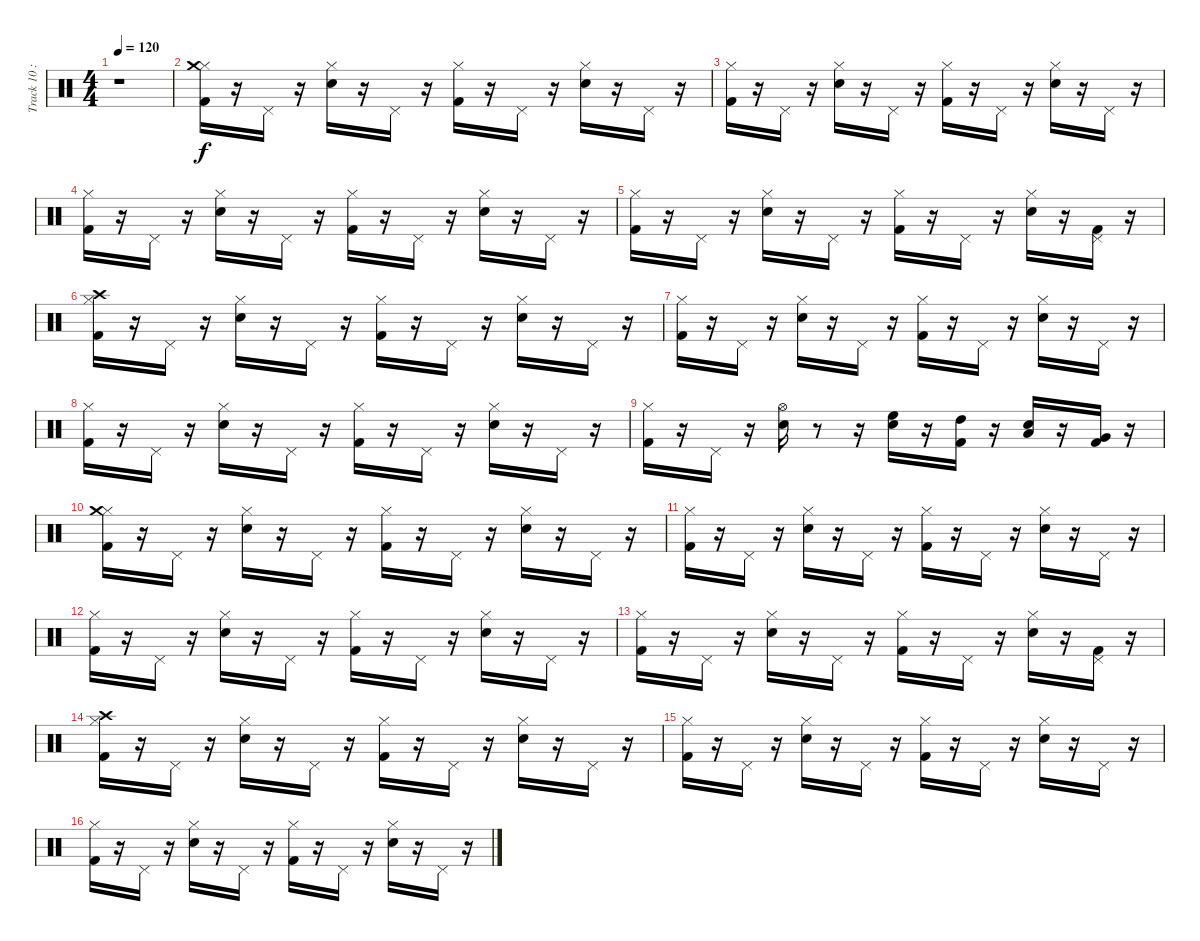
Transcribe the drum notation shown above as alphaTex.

\track ("Track 10 : unspecified" "Track 10 :") {instrument percussion}
\staff {score}
\articulation defaults
\ts (4 4)
\tempo 120
\clef neutral
\ks c
r.1{dy f} |
("Hi-Hat (closed)" "Crash medium (hit)" "Kick (hit) 2").16 r.16 "Pedal Hi-Hat (hit)".16 r.16 ("Hi-Hat (closed)" "Electric Snare (hit)").16 r.16 "Pedal Hi-Hat (hit)".16 r.16 ("Hi-Hat (closed)" "Kick (hit) 2").16 r.16 "Pedal Hi-Hat (hit)".16 r.16 ("Electric Snare (hit)" "Hi-Hat (closed)").16 r.16 "Pedal Hi-Hat (hit)".16 r.16 |
("Kick (hit) 2" "Hi-Hat (closed)").16 r.16 "Pedal Hi-Hat (hit)".16 r.16 ("Electric Snare (hit)" "Hi-Hat (closed)").16 r.16 "Pedal Hi-Hat (hit)".16 r.16 ("Hi-Hat (closed)" "Kick (hit) 2").16 r.16 "Pedal Hi-Hat (hit)".16 r.16 ("Electric Snare (hit)" "Hi-Hat (closed)").16 r.16 "Pedal Hi-Hat (hit)".16 r.16 |
("Kick (hit) 2" "Hi-Hat (closed)").16 r.16 "Pedal Hi-Hat (hit)".16 r.16 ("Electric Snare (hit)" "Hi-Hat (closed)").16 r.16 "Pedal Hi-Hat (hit)".16 r.16 ("Kick (hit) 2" "Hi-Hat (closed)").16 r.16 "Pedal Hi-Hat (hit)".16 r.16 ("Electric Snare (hit)" "Hi-Hat (closed)").16 r.16 "Pedal Hi-Hat (hit)".16 r.16 |
("Kick (hit) 2" "Hi-Hat (closed)").16 r.16 "Pedal Hi-Hat (hit)".16 r.16 ("Electric Snare (hit)" "Hi-Hat (closed)").16 r.16 "Pedal Hi-Hat (hit)".16 r.16 ("Hi-Hat (closed)" "Kick (hit) 2").16 r.16 "Pedal Hi-Hat (hit)".16 r.16 ("Electric Snare (hit)" "Hi-Hat (closed)").16 r.16 ("Pedal Hi-Hat (hit)" "Kick (hit) 2").16 r.16 |
("Hi-Hat (closed)" "Crash high (hit)" "Kick (hit) 2").16 r.16 "Pedal Hi-Hat (hit)".16 r.16 ("Hi-Hat (closed)" "Electric Snare (hit)").16 r.16 "Pedal Hi-Hat (hit)".16 r.16 ("Hi-Hat (closed)" "Kick (hit) 2").16 r.16 "Pedal Hi-Hat (hit)".16 r.16 ("Electric Snare (hit)" "Hi-Hat (closed)").16 r.16 "Pedal Hi-Hat (hit)".16 r.16 |
("Kick (hit) 2" "Hi-Hat (closed)").16 r.16 "Pedal Hi-Hat (hit)".16 r.16 ("Electric Snare (hit)" "Hi-Hat (closed)").16 r.16 "Pedal Hi-Hat (hit)".16 r.16 ("Hi-Hat (closed)" "Kick (hit) 2").16 r.16 "Pedal Hi-Hat (hit)".16 r.16 ("Electric Snare (hit)" "Hi-Hat (closed)").16 r.16 "Pedal Hi-Hat (hit)".16 r.16 |
("Kick (hit) 2" "Hi-Hat (closed)").16 r.16 "Pedal Hi-Hat (hit)".16 r.16 ("Electric Snare (hit)" "Hi-Hat (closed)").16 r.16 "Pedal Hi-Hat (hit)".16 r.16 ("Kick (hit) 2" "Hi-Hat (closed)").16 r.16 "Pedal Hi-Hat (hit)".16 r.16 ("Electric Snare (hit)" "Hi-Hat (closed)").16 r.16 "Pedal Hi-Hat (hit)".16 r.16 |
("Kick (hit) 2" "Hi-Hat (closed)").16 r.16 "Pedal Hi-Hat (hit)".16 r.16 ("Electric Snare (hit)" "Hi-Hat (open)").16 r.8 r.16 ("Electric Snare (hit)" "High Floor Tom (hit)").16 r.16 ("Kick (hit) 2" "High Tom (hit)").16 r.16 ("Electric Snare (hit)" "Low Tom (hit)").16 r.16 ("Very Low Tom (hit)" "Kick (hit) 2").16 r.16 |
("Hi-Hat (closed)" "Crash medium (hit)" "Kick (hit) 2").16 r.16 "Pedal Hi-Hat (hit)".16 r.16 ("Hi-Hat (closed)" "Electric Snare (hit)").16 r.16 "Pedal Hi-Hat (hit)".16 r.16 ("Hi-Hat (closed)" "Kick (hit) 2").16 r.16 "Pedal Hi-Hat (hit)".16 r.16 ("Electric Snare (hit)" "Hi-Hat (closed)").16 r.16 "Pedal Hi-Hat (hit)".16 r.16 |
("Kick (hit) 2" "Hi-Hat (closed)").16 r.16 "Pedal Hi-Hat (hit)".16 r.16 ("Electric Snare (hit)" "Hi-Hat (closed)").16 r.16 "Pedal Hi-Hat (hit)".16 r.16 ("Hi-Hat (closed)" "Kick (hit) 2").16 r.16 "Pedal Hi-Hat (hit)".16 r.16 ("Electric Snare (hit)" "Hi-Hat (closed)").16 r.16 "Pedal Hi-Hat (hit)".16 r.16 |
("Kick (hit) 2" "Hi-Hat (closed)").16 r.16 "Pedal Hi-Hat (hit)".16 r.16 ("Electric Snare (hit)" "Hi-Hat (closed)").16 r.16 "Pedal Hi-Hat (hit)".16 r.16 ("Kick (hit) 2" "Hi-Hat (closed)").16 r.16 "Pedal Hi-Hat (hit)".16 r.16 ("Electric Snare (hit)" "Hi-Hat (closed)").16 r.16 "Pedal Hi-Hat (hit)".16 r.16 |
("Kick (hit) 2" "Hi-Hat (closed)").16 r.16 "Pedal Hi-Hat (hit)".16 r.16 ("Electric Snare (hit)" "Hi-Hat (closed)").16 r.16 "Pedal Hi-Hat (hit)".16 r.16 ("Hi-Hat (closed)" "Kick (hit) 2").16 r.16 "Pedal Hi-Hat (hit)".16 r.16 ("Electric Snare (hit)" "Hi-Hat (closed)").16 r.16 ("Pedal Hi-Hat (hit)" "Kick (hit) 2").16 r.16 |
("Hi-Hat (closed)" "Crash high (hit)" "Kick (hit) 2").16 r.16 "Pedal Hi-Hat (hit)".16 r.16 ("Hi-Hat (closed)" "Electric Snare (hit)").16 r.16 "Pedal Hi-Hat (hit)".16 r.16 ("Hi-Hat (closed)" "Kick (hit) 2").16 r.16 "Pedal Hi-Hat (hit)".16 r.16 ("Electric Snare (hit)" "Hi-Hat (closed)").16 r.16 "Pedal Hi-Hat (hit)".16 r.16 |
("Kick (hit) 2" "Hi-Hat (closed)").16 r.16 "Pedal Hi-Hat (hit)".16 r.16 ("Electric Snare (hit)" "Hi-Hat (closed)").16 r.16 "Pedal Hi-Hat (hit)".16 r.16 ("Hi-Hat (closed)" "Kick (hit) 2").16 r.16 "Pedal Hi-Hat (hit)".16 r.16 ("Electric Snare (hit)" "Hi-Hat (closed)").16 r.16 "Pedal Hi-Hat (hit)".16 r.16 |
("Kick (hit) 2" "Hi-Hat (closed)").16 r.16 "Pedal Hi-Hat (hit)".16 r.16 ("Electric Snare (hit)" "Hi-Hat (closed)").16 r.16 "Pedal Hi-Hat (hit)".16 r.16 ("Kick (hit) 2" "Hi-Hat (closed)").16 r.16 "Pedal Hi-Hat (hit)".16 r.16 ("Electric Snare (hit)" "Hi-Hat (closed)").16 r.16 "Pedal Hi-Hat (hit)".16 r.16
